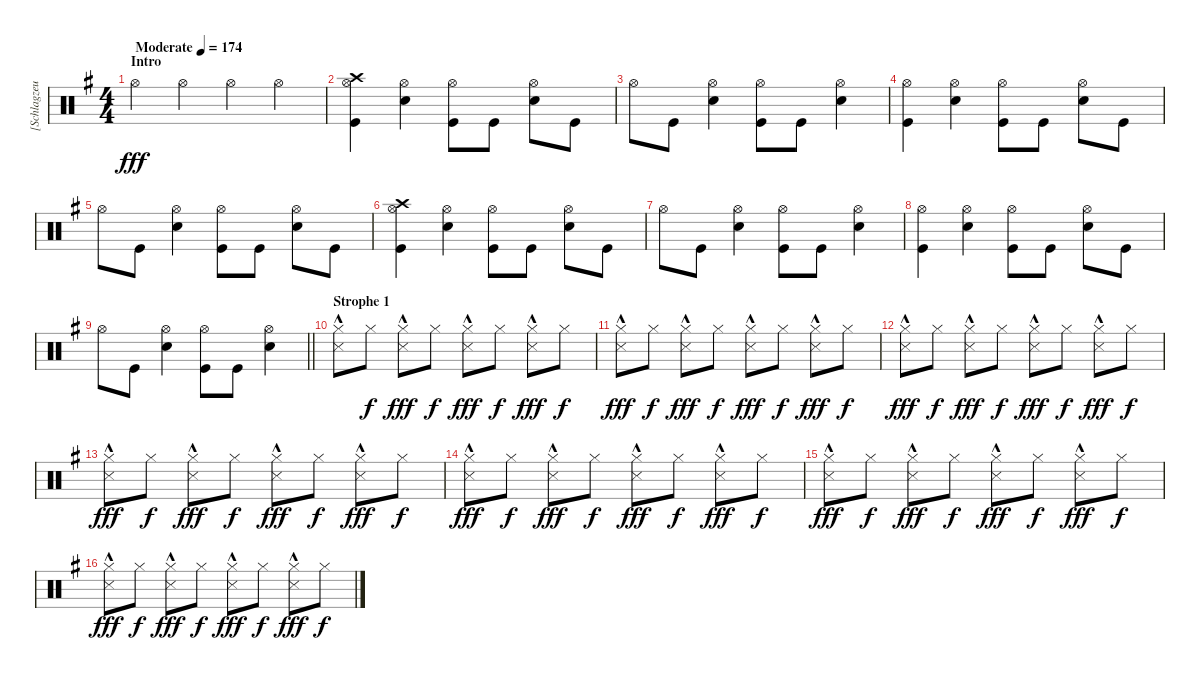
\track ("[Schlagzeug]" "[Schlagzeu") {instrument percussion}
\staff {score}
\articulation defaults
\ts (4 4)
\section ("" "Intro")
\tempo (174 "Moderate")
\clef neutral
\ks g "Hi-Hat (open)".4{dy fff} "Hi-Hat (open)".4 "Hi-Hat (open)".4 "Hi-Hat (open)".4
|
("Crash high (hit)" "Hi-Hat (open)" "Kick (hit)").4 ("Hi-Hat (open)" "Electric Snare (hit)").4 ("Hi-Hat (open)" "Kick (hit)").8 "Kick (hit)".8 ("Hi-Hat (open)" "Electric Snare (hit)").8 "Kick (hit)".8 |
"Hi-Hat (open)".8 "Kick (hit)".8 ("Hi-Hat (open)" "Electric Snare (hit)").4 ("Hi-Hat (open)" "Kick (hit)").8 "Kick (hit)".8 ("Hi-Hat (open)" "Electric Snare (hit)").4 |
("Hi-Hat (open)" "Kick (hit)").4 ("Hi-Hat (open)" "Electric Snare (hit)").4 ("Hi-Hat (open)" "Kick (hit)").8 "Kick (hit)".8 ("Hi-Hat (open)" "Electric Snare (hit)").8 "Kick (hit)".8 |
"Hi-Hat (open)".8 "Kick (hit)".8 ("Hi-Hat (open)" "Electric Snare (hit)").4 ("Hi-Hat (open)" "Kick (hit)").8 "Kick (hit)".8 ("Hi-Hat (open)" "Electric Snare (hit)").8 "Kick (hit)".8 |
("Crash high (hit)" "Hi-Hat (open)" "Kick (hit)").4 ("Hi-Hat (open)" "Electric Snare (hit)").4 ("Hi-Hat (open)" "Kick (hit)").8 "Kick (hit)".8 ("Hi-Hat (open)" "Electric Snare (hit)").8 "Kick (hit)".8 |
"Hi-Hat (open)".8 "Kick (hit)".8 ("Hi-Hat (open)" "Electric Snare (hit)").4 ("Hi-Hat (open)" "Kick (hit)").8 "Kick (hit)".8 ("Hi-Hat (open)" "Electric Snare (hit)").4 |
("Hi-Hat (open)" "Kick (hit)").4 ("Hi-Hat (open)" "Electric Snare (hit)").4 ("Hi-Hat (open)" "Kick (hit)").8 "Kick (hit)".8 ("Hi-Hat (open)" "Electric Snare (hit)").8 "Kick (hit)".8 |
\barLineRight lightlight "Hi-Hat (open)".8 "Kick (hit)".8
("Hi-Hat (open)" "Electric Snare (hit)").4 ("Hi-Hat (open)" "Kick (hit)").8 "Kick (hit)".8 ("Hi-Hat (open)" "Electric Snare (hit)").4 |
\section ("" "Strophe 1")
("Hi-Hat (closed)"{hac} "Snare (side stick) 3").8 "Hi-Hat (closed)".8{dy f} ("Hi-Hat (closed)"{hac} "Snare (side stick) 3").8{dy fff} "Hi-Hat (closed)".8{dy f} ("Hi-Hat (closed)"{hac} "Snare (side stick) 3").8{dy fff} "Hi-Hat (closed)".8{dy f} ("Hi-Hat (closed)"{hac} "Snare (side stick) 3").8{dy fff} "Hi-Hat (closed)".8{dy f} |
("Hi-Hat (closed)"{hac} "Snare (side stick) 3").8{dy fff} "Hi-Hat (closed)".8{dy f} ("Hi-Hat (closed)"{hac} "Snare (side stick) 3").8{dy fff} "Hi-Hat (closed)".8{dy f} ("Hi-Hat (closed)"{hac} "Snare (side stick) 3").8{dy fff} "Hi-Hat (closed)".8{dy f} ("Hi-Hat (closed)"{hac} "Snare (side stick) 3").8{dy fff} "Hi-Hat (closed)".8{dy f} |
("Hi-Hat (closed)"{hac} "Snare (side stick) 3").8{dy fff} "Hi-Hat (closed)".8{dy f} ("Hi-Hat (closed)"{hac} "Snare (side stick) 3").8{dy fff} "Hi-Hat (closed)".8{dy f} ("Hi-Hat (closed)"{hac} "Snare (side stick) 3").8{dy fff} "Hi-Hat (closed)".8{dy f} ("Hi-Hat (closed)"{hac} "Snare (side stick) 3").8{dy fff} "Hi-Hat (closed)".8{dy f} |
("Hi-Hat (closed)"{hac} "Snare (side stick) 3").8{dy fff} "Hi-Hat (closed)".8{dy f} ("Hi-Hat (closed)"{hac} "Snare (side stick) 3").8{dy fff} "Hi-Hat (closed)".8{dy f} ("Hi-Hat (closed)"{hac} "Snare (side stick) 3").8{dy fff} "Hi-Hat (closed)".8{dy f} ("Hi-Hat (closed)"{hac} "Snare (side stick) 3").8{dy fff} "Hi-Hat (closed)".8{dy f} |
("Hi-Hat (closed)"{hac} "Snare (side stick) 3").8{dy fff} "Hi-Hat (closed)".8{dy f} ("Hi-Hat (closed)"{hac} "Snare (side stick) 3").8{dy fff} "Hi-Hat (closed)".8{dy f} ("Hi-Hat (closed)"{hac} "Snare (side stick) 3").8{dy fff} "Hi-Hat (closed)".8{dy f} ("Hi-Hat (closed)"{hac} "Snare (side stick) 3").8{dy fff} "Hi-Hat (closed)".8{dy f} |
("Hi-Hat (closed)"{hac} "Snare (side stick) 3").8{dy fff} "Hi-Hat (closed)".8{dy f} ("Hi-Hat (closed)"{hac} "Snare (side stick) 3").8{dy fff} "Hi-Hat (closed)".8{dy f} ("Hi-Hat (closed)"{hac} "Snare (side stick) 3").8{dy fff} "Hi-Hat (closed)".8{dy f} ("Hi-Hat (closed)"{hac} "Snare (side stick) 3").8{dy fff} "Hi-Hat (closed)".8{dy f} |
("Hi-Hat (closed)"{hac} "Snare (side stick) 3").8{dy fff} "Hi-Hat (closed)".8{dy f} ("Hi-Hat (closed)"{hac} "Snare (side stick) 3").8{dy fff} "Hi-Hat (closed)".8{dy f} ("Hi-Hat (closed)"{hac} "Snare (side stick) 3").8{dy fff} "Hi-Hat (closed)".8{dy f} ("Hi-Hat (closed)"{hac} "Snare (side stick) 3").8{dy fff} "Hi-Hat (closed)".8{dy f}
